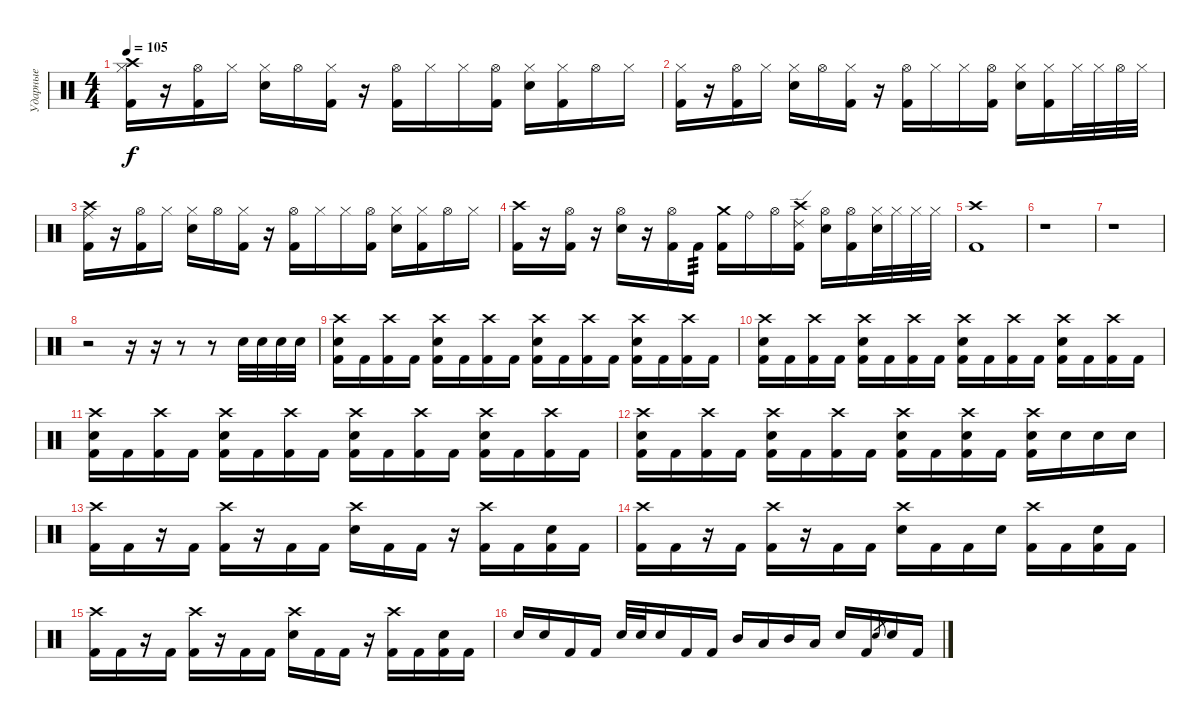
\track ("Ударные" "Ударные") {instrument percussion}
\staff
\articulation defaults
\ts (4 4)
\tempo 105
\clef neutral
\ks c
("Crash high (hit)" "Hi-Hat (closed)" "Kick (hit) 2").16{dy f} r.16 ("Hi-Hat (open)" "Kick (hit) 2").16 "Hi-Hat (closed)".16 ("Hi-Hat (closed)" "Electric Snare (hit)").16 "Hi-Hat (open)".16 ("Hi-Hat (closed)" "Kick (hit) 2").16 r.16 ("Hi-Hat (open)" "Kick (hit) 2").16 "Hi-Hat (closed)".16 "Hi-Hat (closed)".16 ("Hi-Hat (open)" "Kick (hit) 2").16 ("Hi-Hat (closed)" "Electric Snare (hit)").16 ("Hi-Hat (closed)" "Kick (hit) 2").16 "Hi-Hat (open)".16 "Hi-Hat (closed)".16 |
("Hi-Hat (closed)" "Kick (hit) 2").16 r.16 ("Hi-Hat (open)" "Kick (hit) 2").16 "Hi-Hat (closed)".16 ("Hi-Hat (closed)" "Electric Snare (hit)").16 "Hi-Hat (open)".16 ("Hi-Hat (closed)" "Kick (hit) 2").16 r.16 ("Hi-Hat (open)" "Kick (hit) 2").16 "Hi-Hat (closed)".16 "Hi-Hat (closed)".16 ("Hi-Hat (open)" "Kick (hit) 2").16 ("Hi-Hat (closed)" "Electric Snare (hit)").16 ("Hi-Hat (closed)" "Kick (hit) 2").16 "Hi-Hat (closed)".32 "Hi-Hat (closed)".32 "Hi-Hat (open)".32 "Hi-Hat (closed)".32 |
("Crash high (hit)" "Ride (middle)" "Kick (hit) 2").16 r.16 ("Hi-Hat (open)" "Kick (hit) 2").16 "Hi-Hat (closed)".16 ("Hi-Hat (closed)" "Electric Snare (hit)").16 "Hi-Hat (open)".16 ("Hi-Hat (closed)" "Kick (hit) 2").16 r.16 ("Hi-Hat (open)" "Kick (hit) 2").16 "Hi-Hat (closed)".16 "Hi-Hat (closed)".16 ("Hi-Hat (open)" "Kick (hit) 2").16 ("Hi-Hat (closed)" "Electric Snare (hit)").16 ("Hi-Hat (closed)" "Kick (hit) 2").16 "Hi-Hat (open)".16 "Hi-Hat (closed)".16 |
("Crash high (hit)" "Kick (hit) 2").16 r.16 ("Hi-Hat (open)" "Kick (hit) 2").16 r.16 ("Hi-Hat (open)" "Electric Snare (hit)").16 r.16 ("Hi-Hat (open)" "Kick (hit) 2").16 "Kick (hit) 2".16{tp 3} ("Crash medium (hit)" "Kick (hit) 2").16 "Ride (bell)".16 "Hi-Hat (open)".16 ("Ride (edge) 2" "Crash high (hit)" "Kick (hit) 2").16 ("Hi-Hat (open)" "Electric Snare (hit)").16 ("Hi-Hat (open)" "Kick (hit) 2").16 ("Hi-Hat (closed)" "Electric Snare (hit)").32 "Hi-Hat (closed)".32 "Hi-Hat (closed)".32 "Hi-Hat (closed)".32 |
("Crash high (hit)" "Kick (hit) 2").1 |
r.1 |
r.1 |
r.2 r.16 r.16 r.8 r.8 "Electric Snare (hit)".32 "Electric Snare (hit)".32 "Electric Snare (hit)".32 "Electric Snare (hit)".32 |
("Crash high (hit)" "Electric Snare (hit)" "Kick (hit) 2").16 "Kick (hit) 2".16 ("Crash high (hit)" "Kick (hit) 2").16 "Kick (hit) 2".16 ("Crash high (hit)" "Electric Snare (hit)" "Kick (hit) 2").16 "Kick (hit) 2".16 ("Crash high (hit)" "Kick (hit) 2").16 "Kick (hit) 2".16 ("Crash high (hit)" "Electric Snare (hit)" "Kick (hit) 2").16 "Kick (hit) 2".16 ("Crash high (hit)" "Kick (hit) 2").16 "Kick (hit) 2".16 ("Crash high (hit)" "Electric Snare (hit)" "Kick (hit) 2").16 "Kick (hit) 2".16 ("Crash high (hit)" "Kick (hit) 2").16 "Kick (hit) 2".16 |
("Crash high (hit)" "Electric Snare (hit)" "Kick (hit) 2").16 "Kick (hit) 2".16 ("Crash high (hit)" "Kick (hit) 2").16 "Kick (hit) 2".16 ("Crash high (hit)" "Electric Snare (hit)" "Kick (hit) 2").16 "Kick (hit) 2".16 ("Crash high (hit)" "Kick (hit) 2").16 "Kick (hit) 2".16 ("Crash high (hit)" "Electric Snare (hit)" "Kick (hit) 2").16 "Kick (hit) 2".16 ("Crash high (hit)" "Kick (hit) 2").16 "Kick (hit) 2".16 ("Crash high (hit)" "Electric Snare (hit)" "Kick (hit) 2").16 "Kick (hit) 2".16 ("Crash high (hit)" "Kick (hit) 2").16 "Kick (hit) 2".16 |
("Crash high (hit)" "Electric Snare (hit)" "Kick (hit) 2").16 "Kick (hit) 2".16 ("Crash high (hit)" "Kick (hit) 2").16 "Kick (hit) 2".16 ("Crash high (hit)" "Electric Snare (hit)" "Kick (hit) 2").16 "Kick (hit) 2".16 ("Crash high (hit)" "Kick (hit) 2").16 "Kick (hit) 2".16 ("Crash high (hit)" "Electric Snare (hit)" "Kick (hit) 2").16 "Kick (hit) 2".16 ("Crash high (hit)" "Kick (hit) 2").16 "Kick (hit) 2".16 ("Crash high (hit)" "Electric Snare (hit)" "Kick (hit) 2").16 "Kick (hit) 2".16 ("Crash high (hit)" "Kick (hit) 2").16 "Kick (hit) 2".16 |
("Crash high (hit)" "Electric Snare (hit)" "Kick (hit) 2").16 "Kick (hit) 2".16 ("Crash high (hit)" "Kick (hit) 2").16 "Kick (hit) 2".16 ("Crash high (hit)" "Electric Snare (hit)" "Kick (hit) 2").16 "Kick (hit) 2".16 ("Crash high (hit)" "Kick (hit) 2").16 "Kick (hit) 2".16 ("Crash high (hit)" "Electric Snare (hit)" "Kick (hit) 2").16 "Kick (hit) 2".16 ("Crash high (hit)" "Electric Snare (hit)" "Kick (hit) 2").16 "Kick (hit) 2".16 ("Crash high (hit)" "Electric Snare (hit)" "Kick (hit) 2").16 "Electric Snare (hit)".16 "Electric Snare (hit)".16 "Electric Snare (hit)".16 |
("Crash high (hit)" "Kick (hit) 2").16 "Kick (hit) 2".16 r.16 "Kick (hit) 2".16 ("Crash high (hit)" "Kick (hit) 2").16 r.16 "Kick (hit) 2".16 "Kick (hit) 2".16 ("Crash high (hit)" "Electric Snare (hit)").16 "Kick (hit) 2".16 "Kick (hit) 2".16 r.16 ("Crash high (hit)" "Kick (hit) 2").16 "Kick (hit) 2".16 ("Electric Snare (hit)" "Kick (hit) 2").16 "Kick (hit) 2".16 |
("Crash high (hit)" "Kick (hit) 2").16 "Kick (hit) 2".16 r.16 "Kick (hit) 2".16 ("Crash high (hit)" "Kick (hit) 2").16 r.16 "Kick (hit) 2".16 "Kick (hit) 2".16 ("Crash high (hit)" "Electric Snare (hit)").16 "Kick (hit) 2".16 "Kick (hit) 2".16 "Electric Snare (hit)".16 ("Crash high (hit)" "Kick (hit) 2").16 "Kick (hit) 2".16 ("Electric Snare (hit)" "Kick (hit) 2").16 "Kick (hit) 2".16 |
("Crash high (hit)" "Kick (hit) 2").16 "Kick (hit) 2".16 r.16 "Kick (hit) 2".16 ("Crash high (hit)" "Kick (hit) 2").16 r.16 "Kick (hit) 2".16 "Kick (hit) 2".16 ("Crash high (hit)" "Electric Snare (hit)").16 "Kick (hit) 2".16 "Kick (hit) 2".16 r.16 ("Crash high (hit)" "Kick (hit) 2").16 "Kick (hit) 2".16 ("Electric Snare (hit)" "Kick (hit) 2").16 "Kick (hit) 2".16 |
"Electric Snare (hit)".16 "Electric Snare (hit)".16 "Kick (hit) 2".16 "Kick (hit) 2".16 "Electric Snare (hit)".32 "Electric Snare (hit)".32 "Electric Snare (hit)".16 "Kick (hit) 2".16 "Kick (hit) 2".16 "Mid Tom (hit)".16 "Low Tom (hit)".16 "Mid Tom (hit)".16 "Low Tom (hit)".16 "Electric Snare (hit)".16 "Kick (hit) 2".16 "Electric Snare (hit)".8{gr} "Electric Snare (hit)".16 "Kick (hit) 2".16
